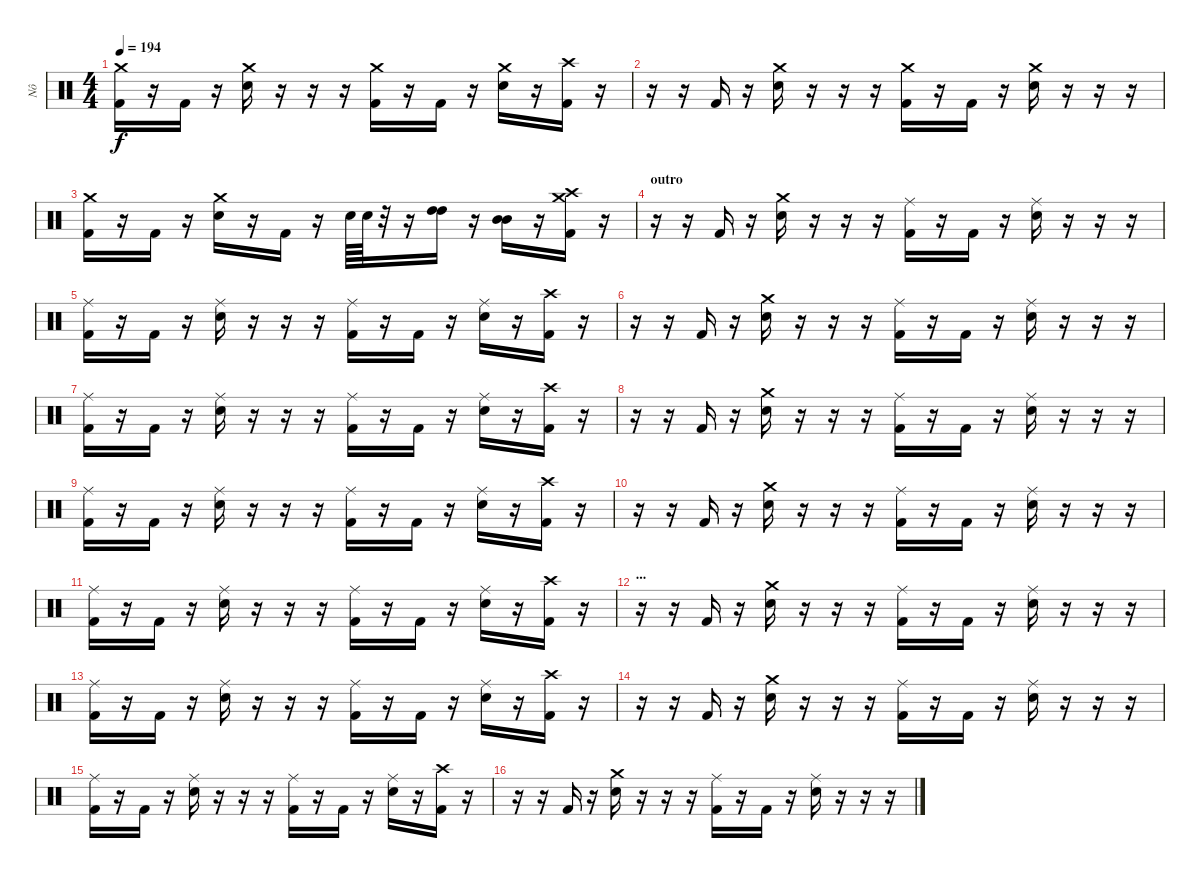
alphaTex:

\track ("Nô" "Nô") {instrument percussion}
\staff {score}
\articulation defaults
\ts (4 4)
\tempo 194
\clef neutral
\ks c
("Crash medium (hit)" "Kick (hit) 2").16{dy f} r.16 "Kick (hit) 2".16 r.16 ("Crash medium (hit)" "Electric Snare (hit)").16 r.16 r.16 r.16 ("Crash medium (hit)" "Kick (hit) 2").16 r.16 "Kick (hit) 2".16 r.16 ("Crash medium (hit)" "Electric Snare (hit)").16 r.16 ("Crash high (hit)" "Kick (hit) 2").16 r.16 |
r.16 r.16 "Kick (hit) 2".16 r.16 ("Crash medium (hit)" "Electric Snare (hit)").16 r.16 r.16 r.16 ("Crash medium (hit)" "Kick (hit) 2").16 r.16 "Kick (hit) 2".16 r.16 ("Crash medium (hit)" "Electric Snare (hit)").16 r.16 r.16 r.16 |
("Crash medium (hit)" "Kick (hit) 2").16 r.16 "Kick (hit) 2".16 r.16 ("Crash medium (hit)" "Electric Snare (hit)").16 r.16 "Kick (hit) 2".16 r.16 "Electric Snare (hit)".64 "Electric Snare (hit)".64 r.32 r.16 ("High Tom (hit)" "High Tom (hit)").16 r.16 ("Mid Tom (hit)" "Mid Tom (hit)").16 r.16 ("Crash high (hit)" "Crash medium (hit)" "Kick (hit) 2").16 r.16 |
\section ("" "outro")
r.16 r.16 "Kick (hit) 2".16 r.16 ("Crash medium (hit)" "Electric Snare (hit)").16 r.16 r.16 r.16 ("Ride (middle)" "Kick (hit) 2").16 r.16 "Kick (hit) 2".16 r.16 ("Ride (middle)" "Electric Snare (hit)").16 r.16 r.16 r.16 |
("Ride (middle)" "Kick (hit) 2").16 r.16 "Kick (hit) 2".16 r.16 ("Ride (middle)" "Electric Snare (hit)").16 r.16 r.16 r.16 ("Ride (middle)" "Kick (hit) 2").16 r.16 "Kick (hit) 2".16 r.16 ("Ride (middle)" "Electric Snare (hit)").16 r.16 ("Crash high (hit)" "Kick (hit) 2").16 r.16 |
r.16 r.16 "Kick (hit) 2".16 r.16 ("Crash medium (hit)" "Electric Snare (hit)").16 r.16 r.16 r.16 ("Ride (middle)" "Kick (hit) 2").16 r.16 "Kick (hit) 2".16 r.16 ("Ride (middle)" "Electric Snare (hit)").16 r.16 r.16 r.16 |
("Ride (middle)" "Kick (hit) 2").16 r.16 "Kick (hit) 2".16 r.16 ("Ride (middle)" "Electric Snare (hit)").16 r.16 r.16 r.16 ("Ride (middle)" "Kick (hit) 2").16 r.16 "Kick (hit) 2".16 r.16 ("Ride (middle)" "Electric Snare (hit)").16 r.16 ("Crash high (hit)" "Kick (hit) 2").16 r.16 |
r.16 r.16 "Kick (hit) 2".16 r.16 ("Crash medium (hit)" "Electric Snare (hit)").16 r.16 r.16 r.16 ("Ride (middle)" "Kick (hit) 2").16 r.16 "Kick (hit) 2".16 r.16 ("Ride (middle)" "Electric Snare (hit)").16 r.16 r.16 r.16 |
("Ride (middle)" "Kick (hit) 2").16 r.16 "Kick (hit) 2".16 r.16 ("Ride (middle)" "Electric Snare (hit)").16 r.16 r.16 r.16 ("Ride (middle)" "Kick (hit) 2").16 r.16 "Kick (hit) 2".16 r.16 ("Ride (middle)" "Electric Snare (hit)").16 r.16 ("Crash high (hit)" "Kick (hit) 2").16 r.16 |
r.16 r.16 "Kick (hit) 2".16 r.16 ("Crash medium (hit)" "Electric Snare (hit)").16 r.16 r.16 r.16 ("Ride (middle)" "Kick (hit) 2").16 r.16 "Kick (hit) 2".16 r.16 ("Ride (middle)" "Electric Snare (hit)").16 r.16 r.16 r.16 |
("Ride (middle)" "Kick (hit) 2").16 r.16 "Kick (hit) 2".16 r.16 ("Ride (middle)" "Electric Snare (hit)").16 r.16 r.16 r.16 ("Ride (middle)" "Kick (hit) 2").16 r.16 "Kick (hit) 2".16 r.16 ("Ride (middle)" "Electric Snare (hit)").16 r.16 ("Crash high (hit)" "Kick (hit) 2").16 r.16 |
\section ("" "...")
r.16 r.16 "Kick (hit) 2".16 r.16 ("Crash medium (hit)" "Electric Snare (hit)").16 r.16 r.16 r.16 ("Ride (middle)" "Kick (hit) 2").16 r.16 "Kick (hit) 2".16 r.16 ("Ride (middle)" "Electric Snare (hit)").16 r.16 r.16 r.16 |
("Ride (middle)" "Kick (hit) 2").16 r.16 "Kick (hit) 2".16 r.16 ("Ride (middle)" "Electric Snare (hit)").16 r.16 r.16 r.16 ("Ride (middle)" "Kick (hit) 2").16 r.16 "Kick (hit) 2".16 r.16 ("Ride (middle)" "Electric Snare (hit)").16 r.16 ("Crash high (hit)" "Kick (hit) 2").16 r.16 |
r.16 r.16 "Kick (hit) 2".16 r.16 ("Crash medium (hit)" "Electric Snare (hit)").16 r.16 r.16 r.16 ("Ride (middle)" "Kick (hit) 2").16 r.16 "Kick (hit) 2".16 r.16 ("Ride (middle)" "Electric Snare (hit)").16 r.16 r.16 r.16 |
("Ride (middle)" "Kick (hit) 2").16 r.16 "Kick (hit) 2".16 r.16 ("Ride (middle)" "Electric Snare (hit)").16 r.16 r.16 r.16 ("Ride (middle)" "Kick (hit) 2").16 r.16 "Kick (hit) 2".16 r.16 ("Ride (middle)" "Electric Snare (hit)").16 r.16 ("Crash high (hit)" "Kick (hit) 2").16 r.16 |
r.16 r.16 "Kick (hit) 2".16 r.16 ("Crash medium (hit)" "Electric Snare (hit)").16 r.16 r.16 r.16 ("Ride (middle)" "Kick (hit) 2").16 r.16 "Kick (hit) 2".16 r.16 ("Ride (middle)" "Electric Snare (hit)").16 r.16 r.16 r.16
